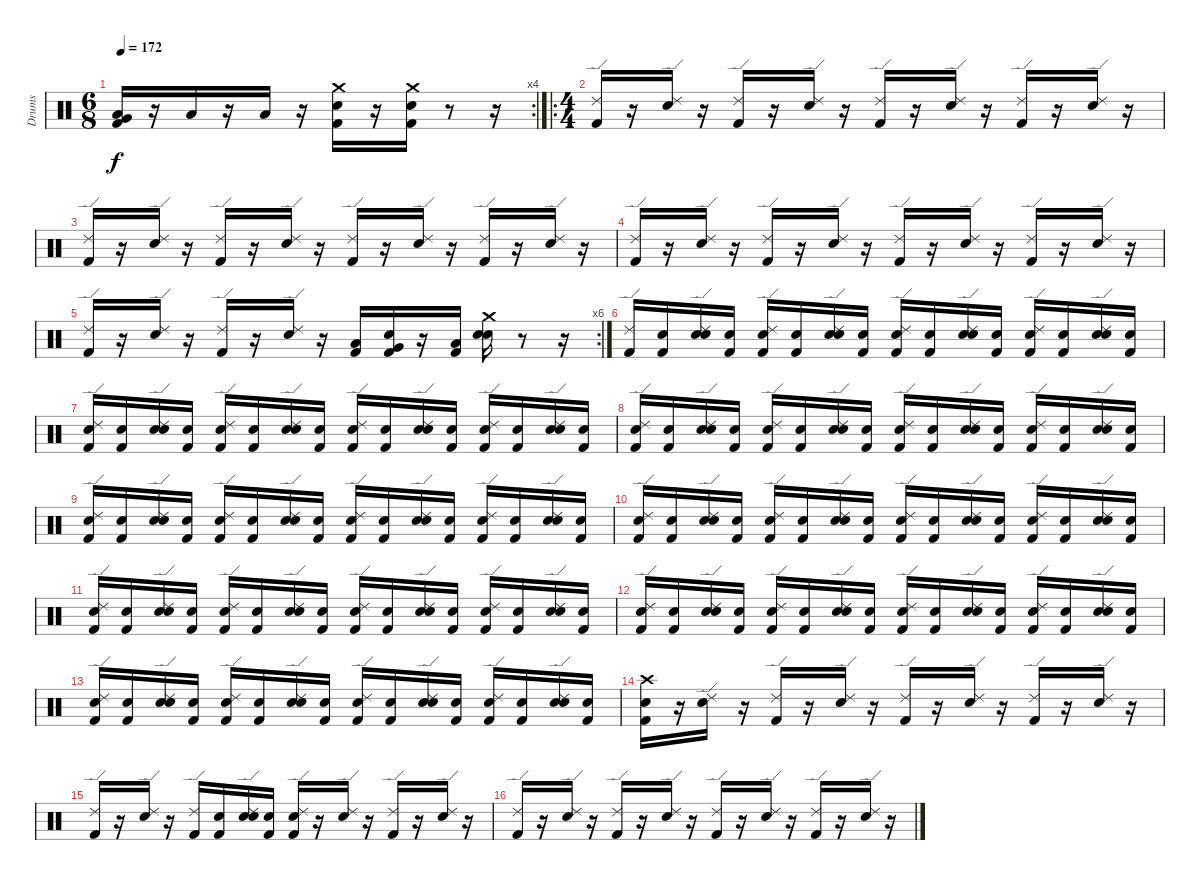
\track ("Drums" "Drums") {instrument percussion}
\staff {score}
\articulation defaults
\rc 4
\ts (6 8)
\tempo 172
\clef neutral
\ks c
("Kick (hit) 2" "Very Low Tom (hit)" "Low Tom (hit)").16{dy f} r.16 "Low Floor Tom (hit)".16 r.16 "Low Floor Tom (hit)".16 r.16 ("Kick (hit) 2" "Snare (hit) 2" "Crash medium (hit)").16 r.16 ("Kick (hit) 2" "Snare (hit) 2" "Crash medium (hit)").16 r.8 r.16 |
\ro
\ts (4 4)
("Kick (hit) 2" "Ride (edge) 2").16 r.16 ("Snare (hit) 2" "Ride (edge) 2").16 r.16 ("Kick (hit) 2" "Ride (edge) 2").16 r.16 ("Snare (hit) 2" "Ride (edge) 2").16 r.16 ("Kick (hit) 2" "Ride (edge) 2").16 r.16 ("Snare (hit) 2" "Ride (edge) 2").16 r.16 ("Kick (hit) 2" "Ride (edge) 2").16 r.16 ("Snare (hit) 2" "Ride (edge) 2").16 r.16 |
("Kick (hit) 2" "Ride (edge) 2").16 r.16 ("Snare (hit) 2" "Ride (edge) 2").16 r.16 ("Kick (hit) 2" "Ride (edge) 2").16 r.16 ("Snare (hit) 2" "Ride (edge) 2").16 r.16 ("Kick (hit) 2" "Ride (edge) 2").16 r.16 ("Snare (hit) 2" "Ride (edge) 2").16 r.16 ("Kick (hit) 2" "Ride (edge) 2").16 r.16 ("Snare (hit) 2" "Ride (edge) 2").16 r.16 |
("Kick (hit) 2" "Ride (edge) 2").16 r.16 ("Snare (hit) 2" "Ride (edge) 2").16 r.16 ("Kick (hit) 2" "Ride (edge) 2").16 r.16 ("Snare (hit) 2" "Ride (edge) 2").16 r.16 ("Kick (hit) 2" "Ride (edge) 2").16 r.16 ("Snare (hit) 2" "Ride (edge) 2").16 r.16 ("Kick (hit) 2" "Ride (edge) 2").16 r.16 ("Snare (hit) 2" "Ride (edge) 2").16 r.16 |
\rc 6
("Kick (hit) 2" "Ride (edge) 2").16 r.16 ("Snare (hit) 2" "Ride (edge) 2").16 r.16 ("Kick (hit) 2" "Ride (edge) 2").16 r.16 ("Snare (hit) 2" "Ride (edge) 2").16 r.16 ("Kick (hit) 2" "Low Tom (hit)").16 ("Snare (hit)" "Kick (hit) 2" "Very Low Tom (hit)").16 r.16 ("Kick (hit) 2" "Low Floor Tom (hit)").16 ("Snare (hit)" "Snare (hit) 2" "Crash medium (hit)").16 r.8 r.16 |
("Kick (hit) 2" "Ride (edge) 2").16 ("Snare (hit)" "Kick (hit) 2").16 ("Snare (hit)" "Snare (hit) 2" "Ride (edge) 2").16 ("Snare (hit)" "Kick (hit) 2").16 ("Snare (hit)" "Kick (hit) 2" "Ride (edge) 2").16 ("Snare (hit)" "Kick (hit) 2").16 ("Snare (hit)" "Snare (hit) 2" "Ride (edge) 2").16 ("Snare (hit)" "Kick (hit) 2").16 ("Snare (hit)" "Kick (hit) 2" "Ride (edge) 2").16 ("Snare (hit)" "Kick (hit) 2").16 ("Snare (hit)" "Snare (hit) 2" "Ride (edge) 2").16 ("Snare (hit)" "Kick (hit) 2").16 ("Snare (hit)" "Kick (hit) 2" "Ride (edge) 2").16 ("Snare (hit)" "Kick (hit) 2").16 ("Snare (hit)" "Snare (hit) 2" "Ride (edge) 2").16 ("Snare (hit)" "Kick (hit) 2").16 |
("Snare (hit)" "Kick (hit) 2" "Ride (edge) 2").16 ("Snare (hit)" "Kick (hit) 2").16 ("Snare (hit)" "Snare (hit) 2" "Ride (edge) 2").16 ("Snare (hit)" "Kick (hit) 2").16 ("Snare (hit)" "Kick (hit) 2" "Ride (edge) 2").16 ("Snare (hit)" "Kick (hit) 2").16 ("Snare (hit)" "Snare (hit) 2" "Ride (edge) 2").16 ("Snare (hit)" "Kick (hit) 2").16 ("Snare (hit)" "Kick (hit) 2" "Ride (edge) 2").16 ("Snare (hit)" "Kick (hit) 2").16 ("Snare (hit)" "Snare (hit) 2" "Ride (edge) 2").16 ("Snare (hit)" "Kick (hit) 2").16 ("Snare (hit)" "Kick (hit) 2" "Ride (edge) 2").16 ("Snare (hit)" "Kick (hit) 2").16 ("Snare (hit)" "Snare (hit) 2" "Ride (edge) 2").16 ("Snare (hit)" "Kick (hit) 2").16 |
("Snare (hit)" "Kick (hit) 2" "Ride (edge) 2").16 ("Snare (hit)" "Kick (hit) 2").16 ("Snare (hit)" "Snare (hit) 2" "Ride (edge) 2").16 ("Snare (hit)" "Kick (hit) 2").16 ("Snare (hit)" "Kick (hit) 2" "Ride (edge) 2").16 ("Snare (hit)" "Kick (hit) 2").16 ("Snare (hit)" "Snare (hit) 2" "Ride (edge) 2").16 ("Snare (hit)" "Kick (hit) 2").16 ("Snare (hit)" "Kick (hit) 2" "Ride (edge) 2").16 ("Snare (hit)" "Kick (hit) 2").16 ("Snare (hit)" "Snare (hit) 2" "Ride (edge) 2").16 ("Snare (hit)" "Kick (hit) 2").16 ("Snare (hit)" "Kick (hit) 2" "Ride (edge) 2").16 ("Snare (hit)" "Kick (hit) 2").16 ("Snare (hit)" "Snare (hit) 2" "Ride (edge) 2").16 ("Snare (hit)" "Kick (hit) 2").16 |
("Snare (hit)" "Kick (hit) 2" "Ride (edge) 2").16 ("Snare (hit)" "Kick (hit) 2").16 ("Snare (hit)" "Snare (hit) 2" "Ride (edge) 2").16 ("Snare (hit)" "Kick (hit) 2").16 ("Snare (hit)" "Kick (hit) 2" "Ride (edge) 2").16 ("Snare (hit)" "Kick (hit) 2").16 ("Snare (hit)" "Snare (hit) 2" "Ride (edge) 2").16 ("Snare (hit)" "Kick (hit) 2").16 ("Snare (hit)" "Kick (hit) 2" "Ride (edge) 2").16 ("Snare (hit)" "Kick (hit) 2").16 ("Snare (hit)" "Snare (hit) 2" "Ride (edge) 2").16 ("Snare (hit)" "Kick (hit) 2").16 ("Snare (hit)" "Kick (hit) 2" "Ride (edge) 2").16 ("Snare (hit)" "Kick (hit) 2").16 ("Snare (hit)" "Snare (hit) 2" "Ride (edge) 2").16 ("Snare (hit)" "Kick (hit) 2").16 |
("Snare (hit)" "Kick (hit) 2" "Ride (edge) 2").16 ("Snare (hit)" "Kick (hit) 2").16 ("Snare (hit)" "Snare (hit) 2" "Ride (edge) 2").16 ("Snare (hit)" "Kick (hit) 2").16 ("Snare (hit)" "Kick (hit) 2" "Ride (edge) 2").16 ("Snare (hit)" "Kick (hit) 2").16 ("Snare (hit)" "Snare (hit) 2" "Ride (edge) 2").16 ("Snare (hit)" "Kick (hit) 2").16 ("Snare (hit)" "Kick (hit) 2" "Ride (edge) 2").16 ("Snare (hit)" "Kick (hit) 2").16 ("Snare (hit)" "Snare (hit) 2" "Ride (edge) 2").16 ("Snare (hit)" "Kick (hit) 2").16 ("Snare (hit)" "Kick (hit) 2" "Ride (edge) 2").16 ("Snare (hit)" "Kick (hit) 2").16 ("Snare (hit)" "Snare (hit) 2" "Ride (edge) 2").16 ("Snare (hit)" "Kick (hit) 2").16 |
("Snare (hit)" "Kick (hit) 2" "Ride (edge) 2").16 ("Snare (hit)" "Kick (hit) 2").16 ("Snare (hit)" "Snare (hit) 2" "Ride (edge) 2").16 ("Snare (hit)" "Kick (hit) 2").16 ("Snare (hit)" "Kick (hit) 2" "Ride (edge) 2").16 ("Snare (hit)" "Kick (hit) 2").16 ("Snare (hit)" "Snare (hit) 2" "Ride (edge) 2").16 ("Snare (hit)" "Kick (hit) 2").16 ("Snare (hit)" "Kick (hit) 2" "Ride (edge) 2").16 ("Snare (hit)" "Kick (hit) 2").16 ("Snare (hit)" "Snare (hit) 2" "Ride (edge) 2").16 ("Snare (hit)" "Kick (hit) 2").16 ("Snare (hit)" "Kick (hit) 2" "Ride (edge) 2").16 ("Snare (hit)" "Kick (hit) 2").16 ("Snare (hit)" "Snare (hit) 2" "Ride (edge) 2").16 ("Snare (hit)" "Kick (hit) 2").16 |
("Snare (hit)" "Kick (hit) 2" "Ride (edge) 2").16 ("Snare (hit)" "Kick (hit) 2").16 ("Snare (hit)" "Snare (hit) 2" "Ride (edge) 2").16 ("Snare (hit)" "Kick (hit) 2").16 ("Snare (hit)" "Kick (hit) 2" "Ride (edge) 2").16 ("Snare (hit)" "Kick (hit) 2").16 ("Snare (hit)" "Snare (hit) 2" "Ride (edge) 2").16 ("Snare (hit)" "Kick (hit) 2").16 ("Snare (hit)" "Kick (hit) 2" "Ride (edge) 2").16 ("Snare (hit)" "Kick (hit) 2").16 ("Snare (hit)" "Snare (hit) 2" "Ride (edge) 2").16 ("Snare (hit)" "Kick (hit) 2").16 ("Snare (hit)" "Kick (hit) 2" "Ride (edge) 2").16 ("Snare (hit)" "Kick (hit) 2").16 ("Snare (hit)" "Snare (hit) 2" "Ride (edge) 2").16 ("Snare (hit)" "Kick (hit) 2").16 |
("Snare (hit)" "Kick (hit) 2" "Ride (edge) 2").16 ("Snare (hit)" "Kick (hit) 2").16 ("Snare (hit)" "Snare (hit) 2" "Ride (edge) 2").16 ("Snare (hit)" "Kick (hit) 2").16 ("Snare (hit)" "Kick (hit) 2" "Ride (edge) 2").16 ("Snare (hit)" "Kick (hit) 2").16 ("Snare (hit)" "Snare (hit) 2" "Ride (edge) 2").16 ("Snare (hit)" "Kick (hit) 2").16 ("Snare (hit)" "Kick (hit) 2" "Ride (edge) 2").16 ("Snare (hit)" "Kick (hit) 2").16 ("Snare (hit)" "Snare (hit) 2" "Ride (edge) 2").16 ("Snare (hit)" "Kick (hit) 2").16 ("Snare (hit)" "Kick (hit) 2" "Ride (edge) 2").16 ("Snare (hit)" "Kick (hit) 2").16 ("Snare (hit)" "Snare (hit) 2" "Ride (edge) 2").16 ("Snare (hit)" "Kick (hit) 2").16 |
("Snare (hit)" "Kick (hit) 2" "Crash high (hit)").16 r.16 ("Snare (hit) 2" "Ride (edge) 2").16 r.16 ("Kick (hit) 2" "Ride (edge) 2").16 r.16 ("Snare (hit) 2" "Ride (edge) 2").16 r.16 ("Kick (hit) 2" "Ride (edge) 2").16 r.16 ("Snare (hit) 2" "Ride (edge) 2").16 r.16 ("Kick (hit) 2" "Ride (edge) 2").16 r.16 ("Snare (hit) 2" "Ride (edge) 2").16 r.16 |
("Kick (hit) 2" "Ride (edge) 2").16 r.16 ("Snare (hit) 2" "Ride (edge) 2").16 r.16 ("Kick (hit) 2" "Ride (edge) 2").16 ("Snare (hit)" "Kick (hit) 2").16 ("Snare (hit)" "Snare (hit) 2" "Ride (edge) 2").16 ("Snare (hit)" "Kick (hit) 2").16 ("Snare (hit)" "Kick (hit) 2" "Ride (edge) 2").16 r.16 ("Snare (hit) 2" "Ride (edge) 2").16 r.16 ("Kick (hit) 2" "Ride (edge) 2").16 r.16 ("Snare (hit) 2" "Ride (edge) 2").16 r.16 |
("Kick (hit) 2" "Ride (edge) 2").16 r.16 ("Snare (hit) 2" "Ride (edge) 2").16 r.16 ("Kick (hit) 2" "Ride (edge) 2").16 r.16 ("Snare (hit) 2" "Ride (edge) 2").16 r.16 ("Kick (hit) 2" "Ride (edge) 2").16 r.16 ("Snare (hit) 2" "Ride (edge) 2").16 r.16 ("Kick (hit) 2" "Ride (edge) 2").16 r.16 ("Snare (hit) 2" "Ride (edge) 2").16 r.16
